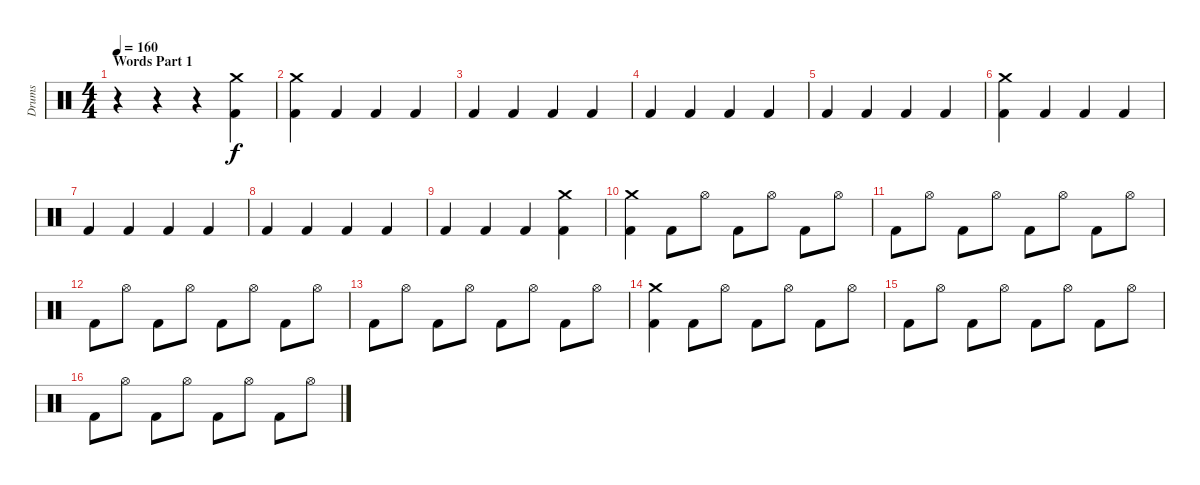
\track ("Drums" "Drums") {instrument percussion}
\staff {score}
\articulation defaults
\ts (4 4)
\section ("" "Words Part 1")
\tempo 160
\clef neutral
\ks c
r.4{dy f} r.4 r.4 ("Crash medium (hit)" "Kick (hit) 2").4 |
("Crash medium (hit)" "Kick (hit) 2").4 "Kick (hit) 2".4 "Kick (hit) 2".4 "Kick (hit) 2".4 |
"Kick (hit) 2".4 "Kick (hit) 2".4 "Kick (hit) 2".4 "Kick (hit) 2".4 |
"Kick (hit) 2".4 "Kick (hit) 2".4 "Kick (hit) 2".4 "Kick (hit) 2".4 |
"Kick (hit) 2".4 "Kick (hit) 2".4 "Kick (hit) 2".4 "Kick (hit) 2".4 |
("Crash medium (hit)" "Kick (hit) 2").4 "Kick (hit) 2".4 "Kick (hit) 2".4 "Kick (hit) 2".4 |
"Kick (hit) 2".4 "Kick (hit) 2".4 "Kick (hit) 2".4 "Kick (hit) 2".4 |
"Kick (hit) 2".4 "Kick (hit) 2".4 "Kick (hit) 2".4 "Kick (hit) 2".4 |
"Kick (hit) 2".4 "Kick (hit) 2".4 "Kick (hit) 2".4 ("Crash medium (hit)" "Kick (hit) 2").4 |
("Crash medium (hit)" "Kick (hit) 2").4 "Kick (hit) 2".8 "Hi-Hat (open)".8 "Kick (hit) 2".8 "Hi-Hat (open)".8 "Kick (hit) 2".8 "Hi-Hat (open)".8 |
"Kick (hit) 2".8 "Hi-Hat (open)".8 "Kick (hit) 2".8 "Hi-Hat (open)".8 "Kick (hit) 2".8 "Hi-Hat (open)".8 "Kick (hit) 2".8 "Hi-Hat (open)".8 |
"Kick (hit) 2".8 "Hi-Hat (open)".8 "Kick (hit) 2".8 "Hi-Hat (open)".8 "Kick (hit) 2".8 "Hi-Hat (open)".8 "Kick (hit) 2".8 "Hi-Hat (open)".8 |
"Kick (hit) 2".8 "Hi-Hat (open)".8 "Kick (hit) 2".8 "Hi-Hat (open)".8 "Kick (hit) 2".8 "Hi-Hat (open)".8 "Kick (hit) 2".8 "Hi-Hat (open)".8 |
("Crash medium (hit)" "Kick (hit) 2").4 "Kick (hit) 2".8 "Hi-Hat (open)".8 "Kick (hit) 2".8 "Hi-Hat (open)".8 "Kick (hit) 2".8 "Hi-Hat (open)".8 |
"Kick (hit) 2".8 "Hi-Hat (open)".8 "Kick (hit) 2".8 "Hi-Hat (open)".8 "Kick (hit) 2".8 "Hi-Hat (open)".8 "Kick (hit) 2".8 "Hi-Hat (open)".8 |
"Kick (hit) 2".8 "Hi-Hat (open)".8 "Kick (hit) 2".8 "Hi-Hat (open)".8 "Kick (hit) 2".8 "Hi-Hat (open)".8 "Kick (hit) 2".8 "Hi-Hat (open)".8
